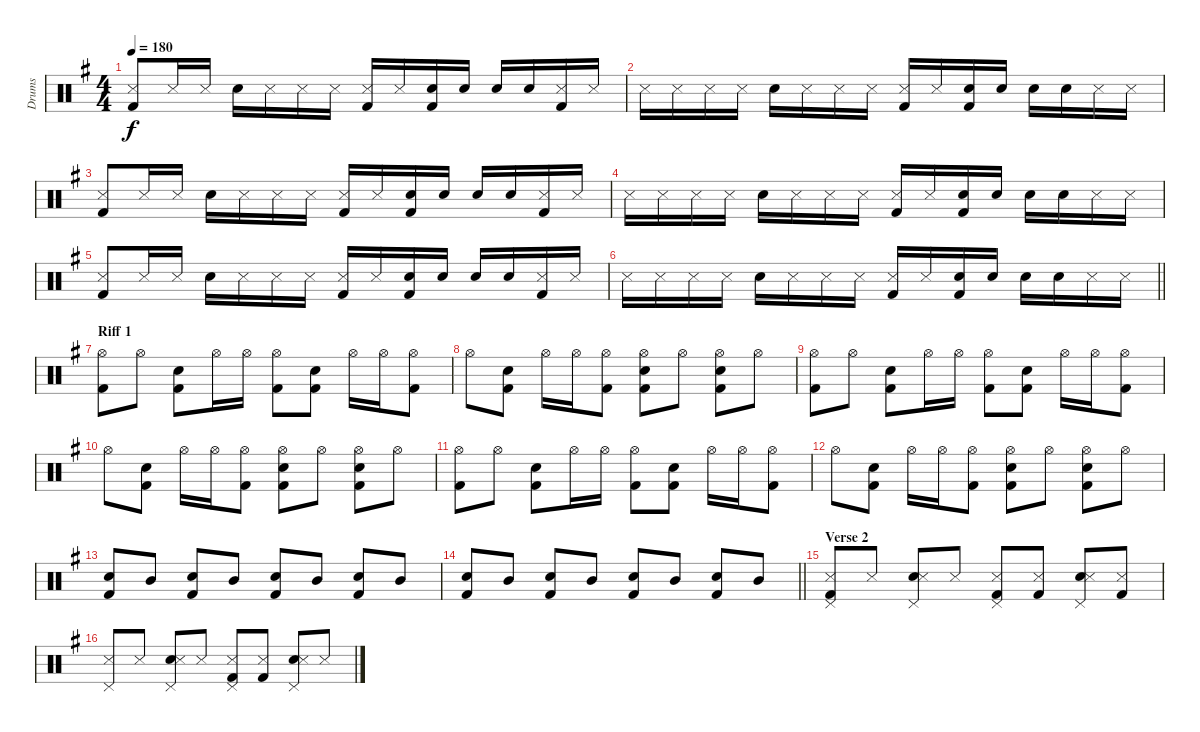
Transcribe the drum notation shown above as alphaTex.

\track ("Drums" "Drums") {instrument percussion bank 255}
\staff {score}
\articulation defaults
\ts (4 4)
\tempo 180
\clef neutral
\ks g
("Snare (side stick) 3" "Kick (hit) 2").8{dy f} "Snare (side stick) 3".16 "Snare (side stick) 3".16 "Snare (hit) 2".16 "Snare (side stick) 3".16 "Snare (side stick) 3".16 "Snare (side stick) 3".16 ("Snare (side stick) 3" "Kick (hit) 2").16 "Snare (side stick) 3".16 ("Snare (hit) 2" "Kick (hit) 2").16 "Snare (hit) 2".16 "Snare (hit) 2".16 "Snare (hit) 2".16 ("Snare (side stick) 3" "Kick (hit) 2").16 "Snare (side stick) 3".16 |
"Snare (side stick) 3".16 "Snare (side stick) 3".16 "Snare (side stick) 3".16 "Snare (side stick) 3".16 "Snare (hit) 2".16 "Snare (side stick) 3".16 "Snare (side stick) 3".16 "Snare (side stick) 3".16 ("Snare (side stick) 3" "Kick (hit) 2").16 "Snare (side stick) 3".16 ("Snare (hit) 2" "Kick (hit) 2").16 "Snare (hit) 2".16 "Snare (hit) 2".16 "Snare (hit) 2".16 "Snare (side stick) 3".16 "Snare (side stick) 3".16 |
("Snare (side stick) 3" "Kick (hit) 2").8 "Snare (side stick) 3".16 "Snare (side stick) 3".16 "Snare (hit) 2".16 "Snare (side stick) 3".16 "Snare (side stick) 3".16 "Snare (side stick) 3".16 ("Snare (side stick) 3" "Kick (hit) 2").16 "Snare (side stick) 3".16 ("Snare (hit) 2" "Kick (hit) 2").16 "Snare (hit) 2".16 "Snare (hit) 2".16 "Snare (hit) 2".16 ("Snare (side stick) 3" "Kick (hit) 2").16 "Snare (side stick) 3".16 |
"Snare (side stick) 3".16 "Snare (side stick) 3".16 "Snare (side stick) 3".16 "Snare (side stick) 3".16 "Snare (hit) 2".16 "Snare (side stick) 3".16 "Snare (side stick) 3".16 "Snare (side stick) 3".16 ("Snare (side stick) 3" "Kick (hit) 2").16 "Snare (side stick) 3".16 ("Snare (hit) 2" "Kick (hit) 2").16 "Snare (hit) 2".16 "Snare (hit) 2".16 "Snare (hit) 2".16 "Snare (side stick) 3".16 "Snare (side stick) 3".16 |
("Snare (side stick) 3" "Kick (hit) 2").8 "Snare (side stick) 3".16 "Snare (side stick) 3".16 "Snare (hit) 2".16 "Snare (side stick) 3".16 "Snare (side stick) 3".16 "Snare (side stick) 3".16 ("Snare (side stick) 3" "Kick (hit) 2").16 "Snare (side stick) 3".16 ("Snare (hit) 2" "Kick (hit) 2").16 "Snare (hit) 2".16 "Snare (hit) 2".16 "Snare (hit) 2".16 ("Snare (side stick) 3" "Kick (hit) 2").16 "Snare (side stick) 3".16 |
\barLineRight lightlight "Snare (side stick) 3".16 "Snare (side stick) 3".16 "Snare (side stick) 3".16 "Snare (side stick) 3".16 "Snare (hit) 2".16 "Snare (side stick) 3".16 "Snare (side stick) 3".16 "Snare (side stick) 3".16
("Snare (side stick) 3" "Kick (hit) 2").16 "Snare (side stick) 3".16 ("Snare (hit) 2" "Kick (hit) 2").16 "Snare (hit) 2".16 "Snare (hit) 2".16 "Snare (hit) 2".16 "Snare (side stick) 3".16 "Snare (side stick) 3".16 |
\section ("" "Riff 1")
("Hi-Hat (open)" "Kick (hit) 2").8 "Hi-Hat (open)".8 ("Snare (hit) 2" "Kick (hit) 2").8 "Hi-Hat (open)".16 "Hi-Hat (open)".16 ("Hi-Hat (open)" "Kick (hit) 2").8 ("Snare (hit) 2" "Kick (hit) 2").8 "Hi-Hat (open)".16 "Hi-Hat (open)".16 ("Hi-Hat (open)" "Kick (hit) 2").8 |
"Hi-Hat (open)".8 ("Snare (hit) 2" "Kick (hit) 2").8 "Hi-Hat (open)".16 "Hi-Hat (open)".16 ("Hi-Hat (open)" "Kick (hit) 2").8 ("Hi-Hat (open)" "Snare (hit) 2" "Kick (hit) 2").8 "Hi-Hat (open)".8 ("Hi-Hat (open)" "Snare (hit) 2" "Kick (hit) 2").8 "Hi-Hat (open)".8 |
("Hi-Hat (open)" "Kick (hit) 2").8 "Hi-Hat (open)".8 ("Snare (hit) 2" "Kick (hit) 2").8 "Hi-Hat (open)".16 "Hi-Hat (open)".16 ("Hi-Hat (open)" "Kick (hit) 2").8 ("Snare (hit) 2" "Kick (hit) 2").8 "Hi-Hat (open)".16 "Hi-Hat (open)".16 ("Hi-Hat (open)" "Kick (hit) 2").8 |
"Hi-Hat (open)".8 ("Snare (hit) 2" "Kick (hit) 2").8 "Hi-Hat (open)".16 "Hi-Hat (open)".16 ("Hi-Hat (open)" "Kick (hit) 2").8 ("Hi-Hat (open)" "Snare (hit) 2" "Kick (hit) 2").8 "Hi-Hat (open)".8 ("Hi-Hat (open)" "Snare (hit) 2" "Kick (hit) 2").8 "Hi-Hat (open)".8 |
("Hi-Hat (open)" "Kick (hit) 2").8 "Hi-Hat (open)".8 ("Snare (hit) 2" "Kick (hit) 2").8 "Hi-Hat (open)".16 "Hi-Hat (open)".16 ("Hi-Hat (open)" "Kick (hit) 2").8 ("Snare (hit) 2" "Kick (hit) 2").8 "Hi-Hat (open)".16 "Hi-Hat (open)".16 ("Hi-Hat (open)" "Kick (hit) 2").8 |
"Hi-Hat (open)".8 ("Snare (hit) 2" "Kick (hit) 2").8 "Hi-Hat (open)".16 "Hi-Hat (open)".16 ("Hi-Hat (open)" "Kick (hit) 2").8 ("Hi-Hat (open)" "Snare (hit) 2" "Kick (hit) 2").8 "Hi-Hat (open)".8 ("Hi-Hat (open)" "Snare (hit) 2" "Kick (hit) 2").8 "Hi-Hat (open)".8 |
("Snare (hit) 2" "Kick (hit) 2").8 "Mid Tom (hit)".8 ("Snare (hit) 2" "Kick (hit) 2").8 "Mid Tom (hit)".8 ("Snare (hit) 2" "Kick (hit) 2").8 "Mid Tom (hit)".8 ("Snare (hit) 2" "Kick (hit) 2").8 "Mid Tom (hit)".8 |
\barLineRight lightlight
("Snare (hit) 2" "Kick (hit) 2").8 "Mid Tom (hit)".8 ("Snare (hit) 2" "Kick (hit) 2").8 "Mid Tom (hit)".8 ("Snare (hit) 2" "Kick (hit) 2").8 "Mid Tom (hit)".8 ("Snare (hit) 2" "Kick (hit) 2").8 "Mid Tom (hit)".8 |
\section ("" "Verse 2")
("Pedal Hi-Hat (hit)" "Snare (side stick) 3" "Kick (hit) 2").8 "Snare (side stick) 3".8 ("Pedal Hi-Hat (hit)" "Snare (hit) 2" "Snare (side stick) 3").8 "Snare (side stick) 3".8 ("Pedal Hi-Hat (hit)" "Snare (side stick) 3" "Kick (hit) 2").8 ("Snare (side stick) 3" "Kick (hit) 2").8 ("Pedal Hi-Hat (hit)" "Snare (hit) 2" "Snare (side stick) 3").8 ("Snare (side stick) 3" "Kick (hit) 2").8 |
("Pedal Hi-Hat (hit)" "Snare (side stick) 3").8 "Snare (side stick) 3".8 ("Pedal Hi-Hat (hit)" "Snare (hit) 2" "Snare (side stick) 3").8 "Snare (side stick) 3".8 ("Pedal Hi-Hat (hit)" "Snare (side stick) 3" "Kick (hit) 2").8 ("Snare (side stick) 3" "Kick (hit) 2").8 ("Pedal Hi-Hat (hit)" "Snare (hit) 2" "Snare (side stick) 3").8 "Snare (side stick) 3".8
